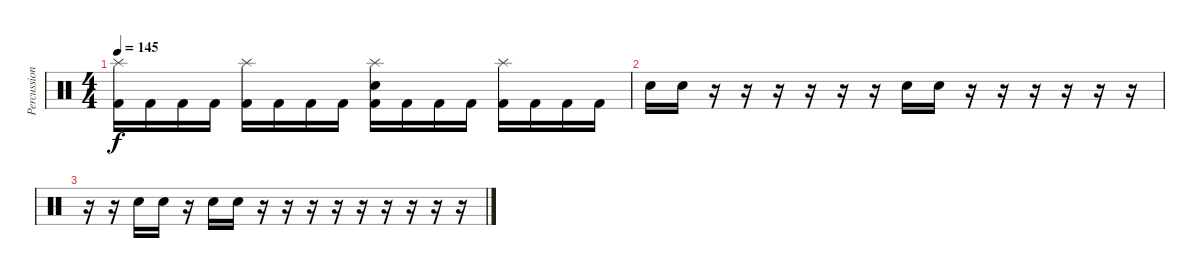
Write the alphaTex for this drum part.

\track ("Percussion" "Percussion") {instrument percussion}
\staff {score}
\articulation defaults
\ts (4 4)
\tempo 145
\clef neutral
\ks c
("Splash (hit)" "Kick (hit) 2").16{dy f} "Kick (hit) 2".16 "Kick (hit) 2".16 "Kick (hit) 2".16 ("Splash (hit)" "Kick (hit) 2").16 "Kick (hit) 2".16 "Kick (hit) 2".16 "Kick (hit) 2".16 ("Splash (hit)" "Electric Snare (hit)" "Kick (hit) 2").16 "Kick (hit) 2".16 "Kick (hit) 2".16 "Kick (hit) 2".16 ("Splash (hit)" "Kick (hit) 2").16 "Kick (hit) 2".16 "Kick (hit) 2".16 "Kick (hit) 2".16 |
"Electric Snare (hit)".16 "Electric Snare (hit)".16 r.16 r.16 r.16 r.16 r.16 r.16 "Electric Snare (hit)".16 "Electric Snare (hit)".16 r.16 r.16 r.16 r.16 r.16 r.16 |
r.16 r.16 "Electric Snare (hit)".16 "Electric Snare (hit)".16 r.16 "Electric Snare (hit)".16 "Electric Snare (hit)".16 r.16 r.16 r.16 r.16 r.16 r.16 r.16 r.16 r.16
